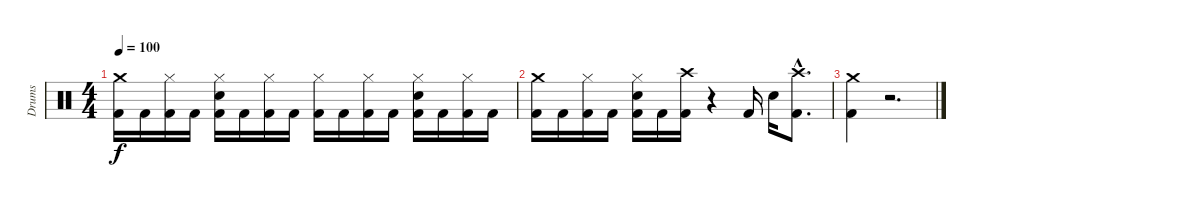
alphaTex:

\track ("Drums" "Drums") {instrument percussion}
\staff {score}
\articulation defaults
\ts (4 4)
\tempo 100
\clef neutral
\ks c
("Kick (hit) 2" "Crash medium (hit)").16{dy f} "Kick (hit) 2".16 ("Kick (hit) 2" "Hi-Hat (closed)").16 "Kick (hit) 2".16 ("Kick (hit) 2" "Hi-Hat (closed)" "Snare (hit) 2").16 "Kick (hit) 2".16 ("Kick (hit) 2" "Hi-Hat (closed)").16 "Kick (hit) 2".16 ("Kick (hit) 2" "Hi-Hat (closed)").16 "Kick (hit) 2".16 ("Kick (hit) 2" "Hi-Hat (closed)").16 "Kick (hit) 2".16 ("Kick (hit) 2" "Hi-Hat (closed)" "Snare (hit) 2").16 "Kick (hit) 2".16 ("Kick (hit) 2" "Hi-Hat (closed)").16 "Kick (hit) 2".16 |
("Kick (hit) 2" "Crash medium (hit)").16 "Kick (hit) 2".16 ("Kick (hit) 2" "Hi-Hat (closed)").16 "Kick (hit) 2".16 ("Kick (hit) 2" "Hi-Hat (closed)" "Snare (hit) 2").16 "Kick (hit) 2".16 ("Kick (hit) 2" "Crash high (hit)").16 r.4 "Kick (hit) 2".16 "Snare (hit) 2".16 ("Kick (hit) 2"{hac} "Crash high (hit)"{hac}).8{d} |
("Kick (hit) 2" "Crash medium (hit)").4 r.2{d}
